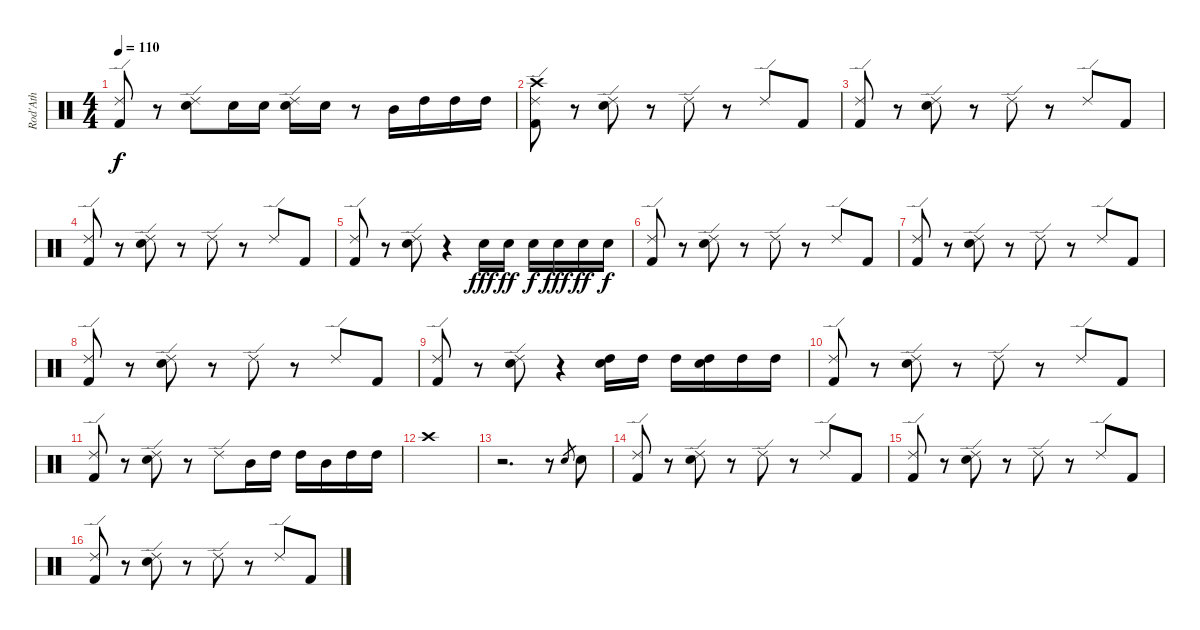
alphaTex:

\track ("Rod'Ath" "Rod'Ath") {instrument percussion}
\staff {score}
\articulation defaults
\ts (4 4)
\tempo 110
\clef neutral
\ks c
("Kick (hit) 2" "Ride (edge) 2").8{dy f} r.8 ("Electric Snare (hit)" "Ride (edge) 2").8 "Electric Snare (hit)".16 "Electric Snare (hit)".16 ("Electric Snare (hit)" "Ride (edge) 2").16 "Electric Snare (hit)".16 r.8 "Mid Tom (hit)".16 "High Tom (hit)".16 "High Tom (hit)".16 "High Tom (hit)".16 |
("Kick (hit) 2" "Ride (edge) 2" "Crash high (hit)").8 r.8 ("Electric Snare (hit)" "Ride (edge) 2").8 r.8 "Ride (edge) 2".8 r.8 "Ride (edge) 2".8 "Kick (hit) 2".8 |
("Kick (hit) 2" "Ride (edge) 2").8 r.8 ("Electric Snare (hit)" "Ride (edge) 2").8 r.8 "Ride (edge) 2".8 r.8 "Ride (edge) 2".8 "Kick (hit) 2".8 |
("Kick (hit) 2" "Ride (edge) 2").8 r.8 ("Electric Snare (hit)" "Ride (edge) 2").8 r.8 "Ride (edge) 2".8 r.8 "Ride (edge) 2".8 "Kick (hit) 2".8 |
("Kick (hit) 2" "Ride (edge) 2").8 r.8 ("Electric Snare (hit)" "Ride (edge) 2").8 r.4 "Electric Snare (hit)".16{dy fff} "Electric Snare (hit)".16{dy ff} "Electric Snare (hit)".16{dy f} "Electric Snare (hit)".16{dy fff} "Electric Snare (hit)".16{dy ff} "Electric Snare (hit)".16{dy f} |
("Kick (hit) 2" "Ride (edge) 2").8 r.8 ("Electric Snare (hit)" "Ride (edge) 2").8 r.8 "Ride (edge) 2".8 r.8 "Ride (edge) 2".8 "Kick (hit) 2".8 |
("Kick (hit) 2" "Ride (edge) 2").8 r.8 ("Electric Snare (hit)" "Ride (edge) 2").8 r.8 "Ride (edge) 2".8 r.8 "Ride (edge) 2".8 "Kick (hit) 2".8 |
("Kick (hit) 2" "Ride (edge) 2").8 r.8 ("Electric Snare (hit)" "Ride (edge) 2").8 r.8 "Ride (edge) 2".8 r.8 "Ride (edge) 2".8 "Kick (hit) 2".8 |
("Kick (hit) 2" "Ride (edge) 2").8 r.8 ("Electric Snare (hit)" "Ride (edge) 2").8 r.4 ("High Tom (hit)" "Electric Snare (hit)").16 "High Tom (hit)".16 "High Tom (hit)".16 ("High Tom (hit)" "Electric Snare (hit)").16 "High Tom (hit)".16 "High Tom (hit)".16 |
("Kick (hit) 2" "Ride (edge) 2").8 r.8 ("Electric Snare (hit)" "Ride (edge) 2").8 r.8 "Ride (edge) 2".8 r.8 "Ride (edge) 2".8 "Kick (hit) 2".8 |
("Kick (hit) 2" "Ride (edge) 2").8 r.8 ("Electric Snare (hit)" "Ride (edge) 2").8 r.8 "Ride (edge) 2".8 "Mid Tom (hit)".16 "High Tom (hit)".16 "High Tom (hit)".16 "Mid Tom (hit)".16 "High Tom (hit)".16 "High Tom (hit)".16 |
"Crash high (hit)".1 |
r.2{d} r.8 "Electric Snare (hit)".8{gr} "Electric Snare (hit)".8 |
("Kick (hit) 2" "Ride (edge) 2").8 r.8 ("Electric Snare (hit)" "Ride (edge) 2").8 r.8 "Ride (edge) 2".8 r.8 "Ride (edge) 2".8 "Kick (hit) 2".8 |
("Kick (hit) 2" "Ride (edge) 2").8 r.8 ("Electric Snare (hit)" "Ride (edge) 2").8 r.8 "Ride (edge) 2".8 r.8 "Ride (edge) 2".8 "Kick (hit) 2".8 |
("Kick (hit) 2" "Ride (edge) 2").8 r.8 ("Electric Snare (hit)" "Ride (edge) 2").8 r.8 "Ride (edge) 2".8 r.8 "Ride (edge) 2".8 "Kick (hit) 2".8
